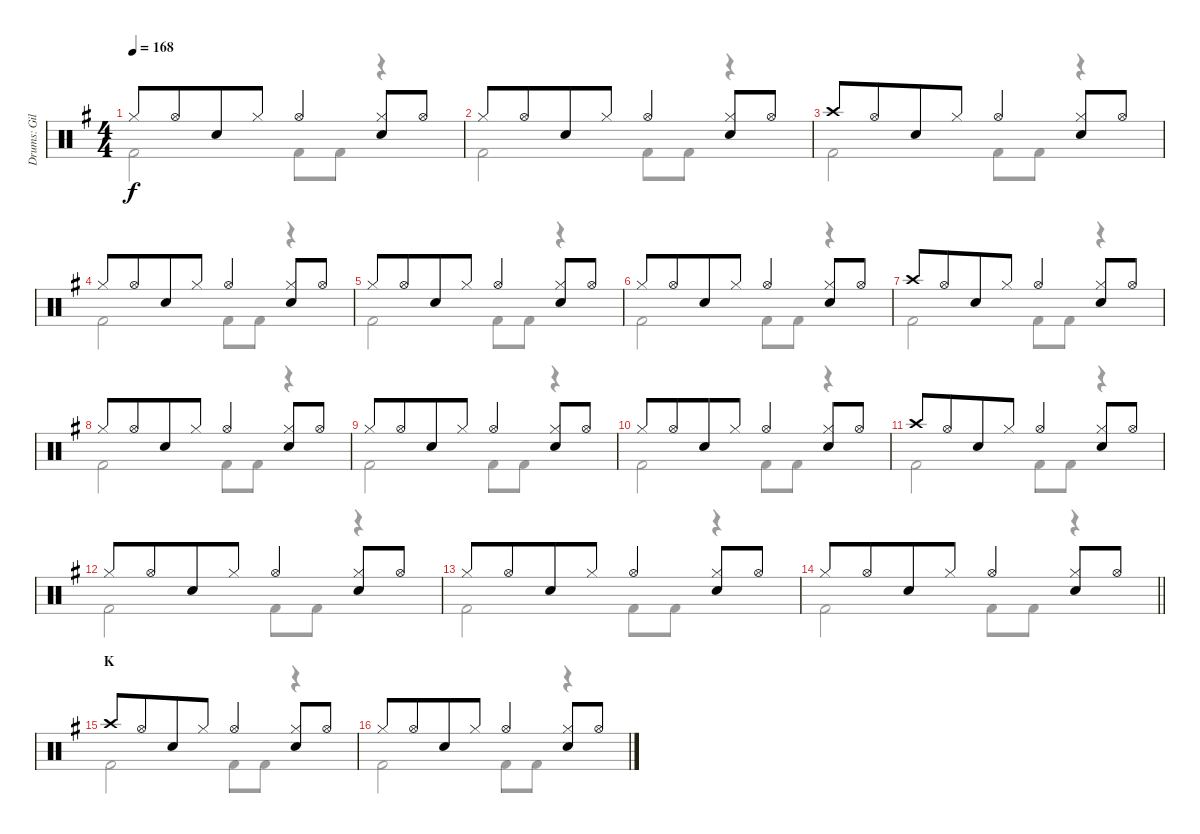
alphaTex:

\track ("Drums: Gil" "Drums: Gil") {instrument percussion}
\staff {score}
\articulation defaults
\voice
\ts (4 4)
\tempo 168
\clef neutral
\ks g "Hi-Hat (closed)".8{dy f} "Hi-Hat (open)".8{beam merge} "Snare (hit) 2".8 "Hi-Hat (closed)".8 "Hi-Hat (open)".4{beam merge}
("Hi-Hat (closed)" "Snare (hit) 2").8 "Hi-Hat (open)".8 |
"Hi-Hat (closed)".8 "Hi-Hat (open)".8{beam merge} "Snare (hit) 2".8 "Hi-Hat (closed)".8 "Hi-Hat (open)".4{beam merge} ("Hi-Hat (closed)" "Snare (hit) 2").8 "Hi-Hat (open)".8 |
"Crash high (hit)".8 "Hi-Hat (open)".8{beam merge} "Snare (hit) 2".8 "Hi-Hat (closed)".8 "Hi-Hat (open)".4{beam merge} ("Hi-Hat (closed)" "Snare (hit) 2").8 "Hi-Hat (open)".8 |
"Hi-Hat (closed)".8 "Hi-Hat (open)".8{beam merge} "Snare (hit) 2".8 "Hi-Hat (closed)".8 "Hi-Hat (open)".4{beam merge} ("Hi-Hat (closed)" "Snare (hit) 2").8 "Hi-Hat (open)".8 |
"Hi-Hat (closed)".8 "Hi-Hat (open)".8{beam merge} "Snare (hit) 2".8 "Hi-Hat (closed)".8 "Hi-Hat (open)".4{beam merge} ("Hi-Hat (closed)" "Snare (hit) 2").8 "Hi-Hat (open)".8 |
"Hi-Hat (closed)".8 "Hi-Hat (open)".8{beam merge} "Snare (hit) 2".8 "Hi-Hat (closed)".8 "Hi-Hat (open)".4{beam merge} ("Hi-Hat (closed)" "Snare (hit) 2").8 "Hi-Hat (open)".8 |
"Crash high (hit)".8 "Hi-Hat (open)".8{beam merge} "Snare (hit) 2".8 "Hi-Hat (closed)".8 "Hi-Hat (open)".4{beam merge} ("Hi-Hat (closed)" "Snare (hit) 2").8 "Hi-Hat (open)".8 |
"Hi-Hat (closed)".8 "Hi-Hat (open)".8{beam merge} "Snare (hit) 2".8 "Hi-Hat (closed)".8 "Hi-Hat (open)".4{beam merge} ("Hi-Hat (closed)" "Snare (hit) 2").8 "Hi-Hat (open)".8 |
"Hi-Hat (closed)".8 "Hi-Hat (open)".8{beam merge} "Snare (hit) 2".8 "Hi-Hat (closed)".8 "Hi-Hat (open)".4{beam merge} ("Hi-Hat (closed)" "Snare (hit) 2").8 "Hi-Hat (open)".8 |
"Hi-Hat (closed)".8 "Hi-Hat (open)".8{beam merge} "Snare (hit) 2".8 "Hi-Hat (closed)".8 "Hi-Hat (open)".4{beam merge} ("Hi-Hat (closed)" "Snare (hit) 2").8 "Hi-Hat (open)".8 |
"Crash high (hit)".8 "Hi-Hat (open)".8{beam merge} "Snare (hit) 2".8 "Hi-Hat (closed)".8 "Hi-Hat (open)".4{beam merge} ("Hi-Hat (closed)" "Snare (hit) 2").8 "Hi-Hat (open)".8 |
"Hi-Hat (closed)".8 "Hi-Hat (open)".8{beam merge} "Snare (hit) 2".8 "Hi-Hat (closed)".8 "Hi-Hat (open)".4{beam merge} ("Hi-Hat (closed)" "Snare (hit) 2").8 "Hi-Hat (open)".8 |
"Hi-Hat (closed)".8 "Hi-Hat (open)".8{beam merge} "Snare (hit) 2".8 "Hi-Hat (closed)".8 "Hi-Hat (open)".4{beam merge} ("Hi-Hat (closed)" "Snare (hit) 2").8 "Hi-Hat (open)".8 |
\barLineRight lightlight "Hi-Hat (closed)".8 "Hi-Hat (open)".8{beam merge} "Snare (hit) 2".8 "Hi-Hat (closed)".8 "Hi-Hat (open)".4{beam merge}
("Hi-Hat (closed)" "Snare (hit) 2").8 "Hi-Hat (open)".8 |
\section ("" "K")
"Crash high (hit)".8 "Hi-Hat (open)".8{beam merge} "Snare (hit) 2".8 "Hi-Hat (closed)".8 "Hi-Hat (open)".4{beam merge} ("Hi-Hat (closed)" "Snare (hit) 2").8 "Hi-Hat (open)".8 |
"Hi-Hat (closed)".8 "Hi-Hat (open)".8{beam merge} "Snare (hit) 2".8 "Hi-Hat (closed)".8 "Hi-Hat (open)".4{beam merge} ("Hi-Hat (closed)" "Snare (hit) 2").8 "Hi-Hat (open)".8
\voice
\clef neutral
\ottava regular
\simile none
\ks g "Kick (hit) 2".2{dy f} "Kick (hit) 2".8 "Kick (hit) 2".8
r.4 |
"Kick (hit) 2".2 "Kick (hit) 2".8 "Kick (hit) 2".8 r.4 |
"Kick (hit) 2".2 "Kick (hit) 2".8 "Kick (hit) 2".8 r.4 |
"Kick (hit) 2".2 "Kick (hit) 2".8 "Kick (hit) 2".8 r.4 |
"Kick (hit) 2".2 "Kick (hit) 2".8 "Kick (hit) 2".8 r.4 |
"Kick (hit) 2".2 "Kick (hit) 2".8 "Kick (hit) 2".8 r.4 |
"Kick (hit) 2".2 "Kick (hit) 2".8 "Kick (hit) 2".8 r.4 |
"Kick (hit) 2".2 "Kick (hit) 2".8 "Kick (hit) 2".8 r.4 |
"Kick (hit) 2".2 "Kick (hit) 2".8 "Kick (hit) 2".8 r.4 |
"Kick (hit) 2".2 "Kick (hit) 2".8 "Kick (hit) 2".8 r.4 |
"Kick (hit) 2".2 "Kick (hit) 2".8 "Kick (hit) 2".8 r.4 |
"Kick (hit) 2".2 "Kick (hit) 2".8 "Kick (hit) 2".8 r.4 |
"Kick (hit) 2".2 "Kick (hit) 2".8 "Kick (hit) 2".8 r.4 |
\barLineRight lightlight "Kick (hit) 2".2 "Kick (hit) 2".8 "Kick (hit) 2".8
r.4 |
"Kick (hit) 2".2 "Kick (hit) 2".8 "Kick (hit) 2".8 r.4 |
"Kick (hit) 2".2 "Kick (hit) 2".8 "Kick (hit) 2".8 r.4
